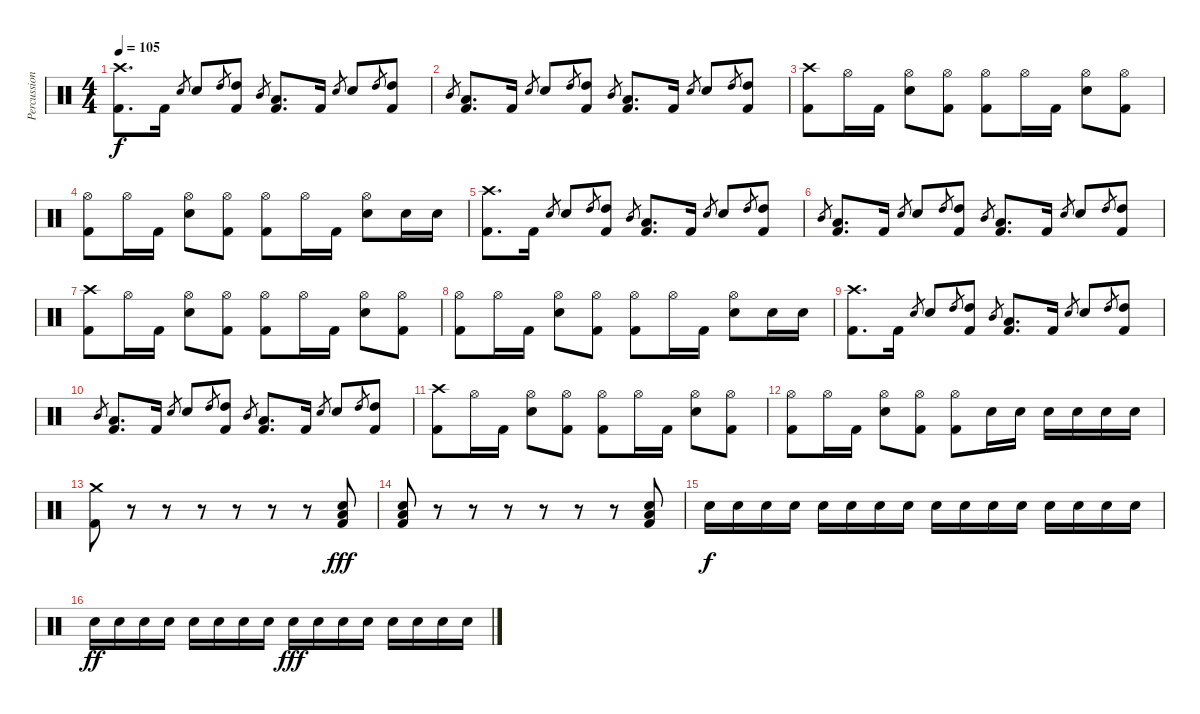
\track ("Percussion" "Percussion") {instrument percussion}
\staff {score}
\articulation defaults
\ts (4 4)
\tempo 105
\clef neutral
\ks c
("Crash high (hit)" "Kick (hit) 2").8{d dy f} "Kick (hit) 2".16 "Electric Snare (hit)".8{gr} "Electric Snare (hit)".8 "High Tom (hit)".8{gr} ("High Tom (hit)" "Kick (hit) 2").8 "Mid Tom (hit)".8{gr} ("Low Tom (hit)" "Kick (hit) 2").8{d} "Kick (hit) 2".16 "Electric Snare (hit)".8{gr} "Electric Snare (hit)".8 "High Tom (hit)".8{gr} ("High Tom (hit)" "Kick (hit) 2").8 |
"Mid Tom (hit)".8{gr} ("Low Tom (hit)" "Kick (hit) 2").8{d} "Kick (hit) 2".16 "Electric Snare (hit)".8{gr} "Electric Snare (hit)".8 "High Tom (hit)".8{gr} ("High Tom (hit)" "Kick (hit) 2").8 "Mid Tom (hit)".8{gr} ("Low Tom (hit)" "Kick (hit) 2").8{d} "Kick (hit) 2".16 "Electric Snare (hit)".8{gr} "Electric Snare (hit)".8 "High Tom (hit)".8{gr} ("High Tom (hit)" "Kick (hit) 2").8 |
("Crash high (hit)" "Kick (hit) 2").8 "Hi-Hat (open)".16 "Kick (hit) 2".16 ("Hi-Hat (open)" "Electric Snare (hit)").8 ("Hi-Hat (open)" "Kick (hit) 2").8 ("Hi-Hat (open)" "Kick (hit) 2").8 "Hi-Hat (open)".16 "Kick (hit) 2".16 ("Hi-Hat (open)" "Electric Snare (hit)").8 ("Hi-Hat (open)" "Kick (hit) 2").8 |
("Hi-Hat (open)" "Kick (hit) 2").8 "Hi-Hat (open)".16 "Kick (hit) 2".16 ("Hi-Hat (open)" "Electric Snare (hit)").8 ("Hi-Hat (open)" "Kick (hit) 2").8 ("Hi-Hat (open)" "Kick (hit) 2").8 "Hi-Hat (open)".16 "Kick (hit) 2".16 ("Hi-Hat (open)" "Electric Snare (hit)").8 "Electric Snare (hit)".16 "Electric Snare (hit)".16 |
("Crash high (hit)" "Kick (hit) 2").8{d} "Kick (hit) 2".16 "Electric Snare (hit)".8{gr} "Electric Snare (hit)".8 "High Tom (hit)".8{gr} ("High Tom (hit)" "Kick (hit) 2").8 "Mid Tom (hit)".8{gr} ("Low Tom (hit)" "Kick (hit) 2").8{d} "Kick (hit) 2".16 "Electric Snare (hit)".8{gr} "Electric Snare (hit)".8 "High Tom (hit)".8{gr} ("High Tom (hit)" "Kick (hit) 2").8 |
"Mid Tom (hit)".8{gr} ("Low Tom (hit)" "Kick (hit) 2").8{d} "Kick (hit) 2".16 "Electric Snare (hit)".8{gr} "Electric Snare (hit)".8 "High Tom (hit)".8{gr} ("High Tom (hit)" "Kick (hit) 2").8 "Mid Tom (hit)".8{gr} ("Low Tom (hit)" "Kick (hit) 2").8{d} "Kick (hit) 2".16 "Electric Snare (hit)".8{gr} "Electric Snare (hit)".8 "High Tom (hit)".8{gr} ("High Tom (hit)" "Kick (hit) 2").8 |
("Crash high (hit)" "Kick (hit) 2").8 "Hi-Hat (open)".16 "Kick (hit) 2".16 ("Hi-Hat (open)" "Electric Snare (hit)").8 ("Hi-Hat (open)" "Kick (hit) 2").8 ("Hi-Hat (open)" "Kick (hit) 2").8 "Hi-Hat (open)".16 "Kick (hit) 2".16 ("Hi-Hat (open)" "Electric Snare (hit)").8 ("Hi-Hat (open)" "Kick (hit) 2").8 |
("Hi-Hat (open)" "Kick (hit) 2").8 "Hi-Hat (open)".16 "Kick (hit) 2".16 ("Hi-Hat (open)" "Electric Snare (hit)").8 ("Hi-Hat (open)" "Kick (hit) 2").8 ("Hi-Hat (open)" "Kick (hit) 2").8 "Hi-Hat (open)".16 "Kick (hit) 2".16 ("Hi-Hat (open)" "Electric Snare (hit)").8 "Electric Snare (hit)".16 "Electric Snare (hit)".16 |
("Crash high (hit)" "Kick (hit) 2").8{d} "Kick (hit) 2".16 "Electric Snare (hit)".8{gr} "Electric Snare (hit)".8 "High Tom (hit)".8{gr} ("High Tom (hit)" "Kick (hit) 2").8 "Mid Tom (hit)".8{gr} ("Low Tom (hit)" "Kick (hit) 2").8{d} "Kick (hit) 2".16 "Electric Snare (hit)".8{gr} "Electric Snare (hit)".8 "High Tom (hit)".8{gr} ("High Tom (hit)" "Kick (hit) 2").8 |
"Mid Tom (hit)".8{gr} ("Low Tom (hit)" "Kick (hit) 2").8{d} "Kick (hit) 2".16 "Electric Snare (hit)".8{gr} "Electric Snare (hit)".8 "High Tom (hit)".8{gr} ("High Tom (hit)" "Kick (hit) 2").8 "Mid Tom (hit)".8{gr} ("Low Tom (hit)" "Kick (hit) 2").8{d} "Kick (hit) 2".16 "Electric Snare (hit)".8{gr} "Electric Snare (hit)".8 "High Tom (hit)".8{gr} ("High Tom (hit)" "Kick (hit) 2").8 |
("Crash high (hit)" "Kick (hit) 2").8 "Hi-Hat (open)".16 "Kick (hit) 2".16 ("Hi-Hat (open)" "Electric Snare (hit)").8 ("Hi-Hat (open)" "Kick (hit) 2").8 ("Hi-Hat (open)" "Kick (hit) 2").8 "Hi-Hat (open)".16 "Kick (hit) 2".16 ("Hi-Hat (open)" "Electric Snare (hit)").8 ("Hi-Hat (open)" "Kick (hit) 2").8 |
("Hi-Hat (open)" "Kick (hit) 2").8 "Hi-Hat (open)".16 "Kick (hit) 2".16 ("Hi-Hat (open)" "Electric Snare (hit)").8 ("Hi-Hat (open)" "Kick (hit) 2").8 ("Hi-Hat (open)" "Kick (hit) 2").8 "Electric Snare (hit)".16 "Electric Snare (hit)".16 "Electric Snare (hit)".16 "Electric Snare (hit)".16 "Electric Snare (hit)".16 "Electric Snare (hit)".16 |
("Crash medium (hit)" "Kick (hit) 2").8 r.8 r.8 r.8 r.8 r.8 r.8 ("Low Tom (hit)" "Electric Snare (hit)" "Kick (hit) 2").8{dy fff} |
("Low Tom (hit)" "Electric Snare (hit)" "Kick (hit) 2").8 r.8 r.8 r.8 r.8 r.8 r.8 ("Low Tom (hit)" "Electric Snare (hit)" "Kick (hit) 2").8 |
"Electric Snare (hit)".16{dy f} "Electric Snare (hit)".16 "Electric Snare (hit)".16 "Electric Snare (hit)".16 "Electric Snare (hit)".16 "Electric Snare (hit)".16 "Electric Snare (hit)".16 "Electric Snare (hit)".16 "Electric Snare (hit)".16 "Electric Snare (hit)".16 "Electric Snare (hit)".16 "Electric Snare (hit)".16 "Electric Snare (hit)".16 "Electric Snare (hit)".16 "Electric Snare (hit)".16 "Electric Snare (hit)".16 |
"Electric Snare (hit)".16{dy ff} "Electric Snare (hit)".16 "Electric Snare (hit)".16 "Electric Snare (hit)".16 "Electric Snare (hit)".16 "Electric Snare (hit)".16 "Electric Snare (hit)".16 "Electric Snare (hit)".16 "Electric Snare (hit)".16{dy fff} "Electric Snare (hit)".16 "Electric Snare (hit)".16 "Electric Snare (hit)".16 "Electric Snare (hit)".16 "Electric Snare (hit)".16 "Electric Snare (hit)".16 "Electric Snare (hit)".16
